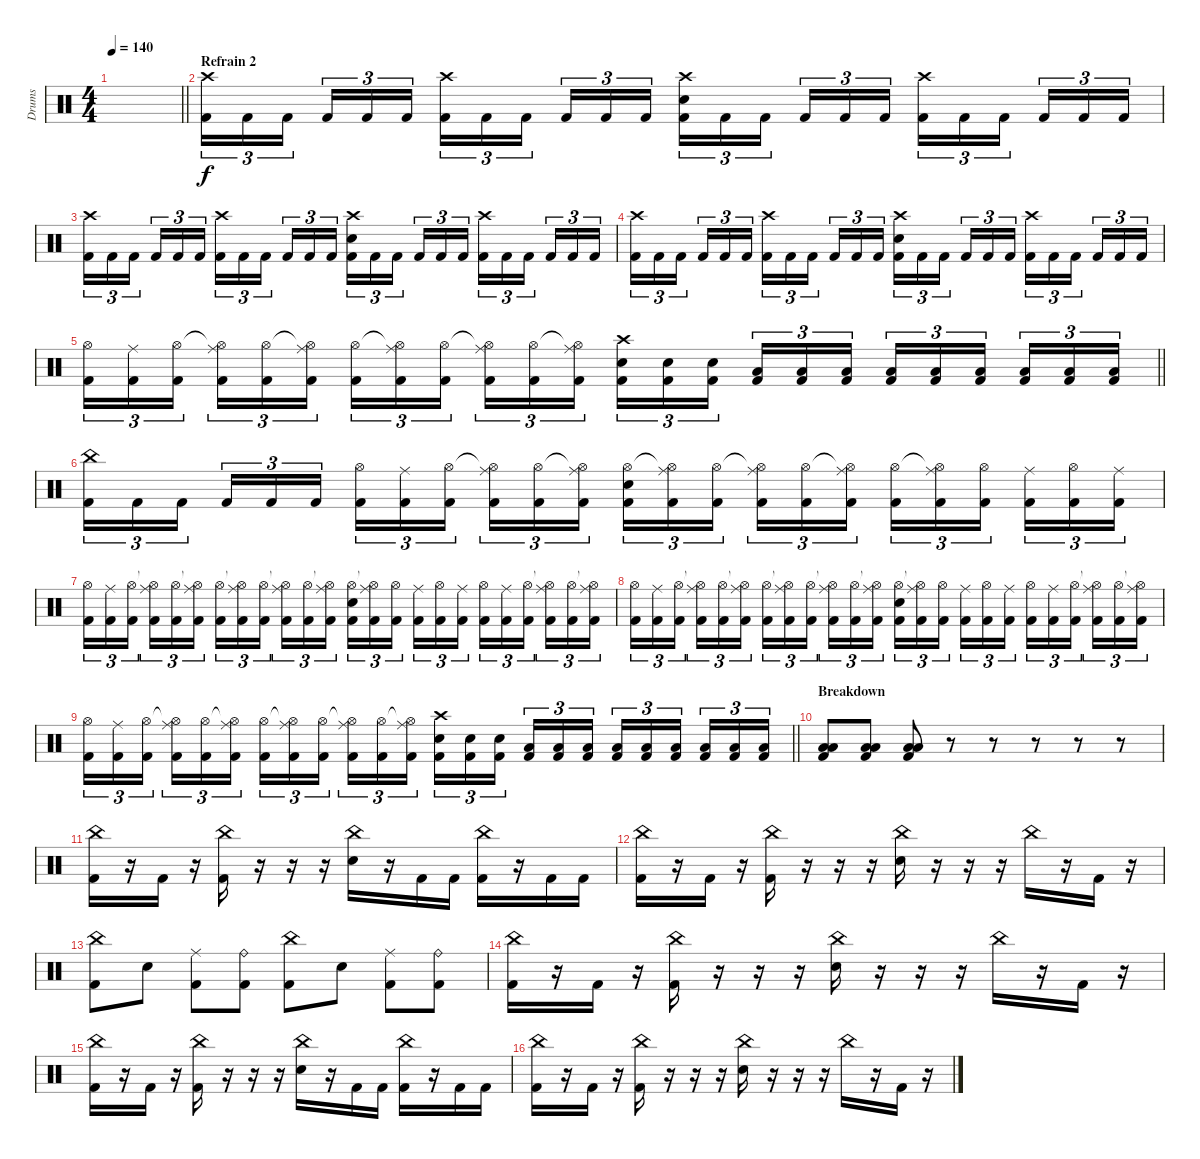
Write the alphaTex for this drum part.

\track ("Drums" "Drums") {instrument percussion}
\staff {score}
\articulation defaults
\ts (4 4)
\tempo 140
\clef neutral
\barLineRight lightlight
\ks c
|
\section ("" "Refrain 2")
("Crash high (hit)" "Kick (hit) 2").16{tu (3 2)} "Kick (hit) 2".16{tu (3 2)} "Kick (hit) 2".16{tu (3 2) beam splitsecondary} "Kick (hit) 2".16{tu (3 2)} "Kick (hit) 2".16{tu (3 2)} "Kick (hit) 2".16{tu (3 2)} ("Crash high (hit)" "Kick (hit) 2").16{tu (3 2)} "Kick (hit) 2".16{tu (3 2)} "Kick (hit) 2".16{tu (3 2) beam splitsecondary} "Kick (hit) 2".16{tu (3 2)} "Kick (hit) 2".16{tu (3 2)} "Kick (hit) 2".16{tu (3 2)} ("Crash high (hit)" "Snare (hit) 2" "Kick (hit) 2").16{tu (3 2)} "Kick (hit) 2".16{tu (3 2)} "Kick (hit) 2".16{tu (3 2) beam splitsecondary} "Kick (hit) 2".16{tu (3 2)} "Kick (hit) 2".16{tu (3 2)} "Kick (hit) 2".16{tu (3 2)} ("Crash high (hit)" "Kick (hit) 2").16{tu (3 2)} "Kick (hit) 2".16{tu (3 2)} "Kick (hit) 2".16{tu (3 2) beam splitsecondary} "Kick (hit) 2".16{tu (3 2)} "Kick (hit) 2".16{tu (3 2)} "Kick (hit) 2".16{tu (3 2)} |
("Crash high (hit)" "Kick (hit) 2").16{tu (3 2)} "Kick (hit) 2".16{tu (3 2)} "Kick (hit) 2".16{tu (3 2) beam splitsecondary} "Kick (hit) 2".16{tu (3 2)} "Kick (hit) 2".16{tu (3 2)} "Kick (hit) 2".16{tu (3 2)} ("Crash high (hit)" "Kick (hit) 2").16{tu (3 2)} "Kick (hit) 2".16{tu (3 2)} "Kick (hit) 2".16{tu (3 2) beam splitsecondary} "Kick (hit) 2".16{tu (3 2)} "Kick (hit) 2".16{tu (3 2)} "Kick (hit) 2".16{tu (3 2)} ("Crash high (hit)" "Snare (hit) 2" "Kick (hit) 2").16{tu (3 2)} "Kick (hit) 2".16{tu (3 2)} "Kick (hit) 2".16{tu (3 2) beam splitsecondary} "Kick (hit) 2".16{tu (3 2)} "Kick (hit) 2".16{tu (3 2)} "Kick (hit) 2".16{tu (3 2)} ("Crash high (hit)" "Kick (hit) 2").16{tu (3 2)} "Kick (hit) 2".16{tu (3 2)} "Kick (hit) 2".16{tu (3 2) beam splitsecondary} "Kick (hit) 2".16{tu (3 2)} "Kick (hit) 2".16{tu (3 2)} "Kick (hit) 2".16{tu (3 2)} |
("Crash high (hit)" "Kick (hit) 2").16{tu (3 2)} "Kick (hit) 2".16{tu (3 2)} "Kick (hit) 2".16{tu (3 2) beam splitsecondary} "Kick (hit) 2".16{tu (3 2)} "Kick (hit) 2".16{tu (3 2)} "Kick (hit) 2".16{tu (3 2)} ("Crash high (hit)" "Kick (hit) 2").16{tu (3 2)} "Kick (hit) 2".16{tu (3 2)} "Kick (hit) 2".16{tu (3 2) beam splitsecondary} "Kick (hit) 2".16{tu (3 2)} "Kick (hit) 2".16{tu (3 2)} "Kick (hit) 2".16{tu (3 2)} ("Crash high (hit)" "Snare (hit) 2" "Kick (hit) 2").16{tu (3 2)} "Kick (hit) 2".16{tu (3 2)} "Kick (hit) 2".16{tu (3 2) beam splitsecondary} "Kick (hit) 2".16{tu (3 2)} "Kick (hit) 2".16{tu (3 2)} "Kick (hit) 2".16{tu (3 2)} ("Crash high (hit)" "Kick (hit) 2").16{tu (3 2)} "Kick (hit) 2".16{tu (3 2)} "Kick (hit) 2".16{tu (3 2) beam splitsecondary} "Kick (hit) 2".16{tu (3 2)} "Kick (hit) 2".16{tu (3 2)} "Kick (hit) 2".16{tu (3 2)} |
\barLineRight lightlight
("Hi-Hat (open)" "Kick (hit) 2").16{tu (3 2)} ("Ride (middle)" "Kick (hit) 2").16{tu (3 2)} ("Hi-Hat (open)" "Kick (hit) 2").16{tu (3 2) beam splitsecondary} ("Hi-Hat (open)"{t} "Ride (middle)" "Kick (hit) 2").16{tu (3 2)} ("Hi-Hat (open)" "Kick (hit) 2").16{tu (3 2)} ("Hi-Hat (open)"{t} "Ride (middle)" "Kick (hit) 2").16{tu (3 2)} ("Hi-Hat (open)" "Kick (hit) 2").16{tu (3 2)} ("Hi-Hat (open)"{t} "Ride (middle)" "Kick (hit) 2").16{tu (3 2)} ("Hi-Hat (open)" "Kick (hit) 2").16{tu (3 2) beam splitsecondary} ("Hi-Hat (open)"{t} "Ride (middle)" "Kick (hit) 2").16{tu (3 2)} ("Hi-Hat (open)" "Kick (hit) 2").16{tu (3 2)} ("Hi-Hat (open)"{t} "Ride (middle)" "Kick (hit) 2").16{tu (3 2)} ("Crash high (hit)" "Snare (hit) 2" "Kick (hit) 2").16{tu (3 2)} ("Snare (hit) 2" "Kick (hit) 2").16{tu (3 2)} ("Snare (hit) 2" "Kick (hit) 2").16{tu (3 2) beam splitsecondary} ("Low Floor Tom (hit)" "Kick (hit) 2").16{tu (3 2)} ("Low Floor Tom (hit)" "Kick (hit) 2").16{tu (3 2)} ("Low Floor Tom (hit)" "Kick (hit) 2").16{tu (3 2)} ("Low Tom (hit)" "Kick (hit) 2").16{tu (3 2)} ("Low Tom (hit)" "Kick (hit) 2").16{tu (3 2)} ("Low Tom (hit)" "Kick (hit) 2").16{tu (3 2) beam splitsecondary} ("Low Floor Tom (hit)" "Kick (hit) 2").16{tu (3 2)} ("Low Floor Tom (hit)" "Kick (hit) 2").16{tu (3 2)} ("Low Floor Tom (hit)" "Kick (hit) 2").16{tu (3 2)} |
("China (hit)" "Kick (hit) 2").16{tu (3 2)} "Kick (hit) 2".16{tu (3 2)} "Kick (hit) 2".16{tu (3 2) beam splitsecondary} "Kick (hit) 2".16{tu (3 2)} "Kick (hit) 2".16{tu (3 2)} "Kick (hit) 2".16{tu (3 2)} ("Hi-Hat (open)" "Kick (hit) 2").16{tu (3 2)} ("Ride (middle)" "Kick (hit) 2").16{tu (3 2)} ("Hi-Hat (open)" "Kick (hit) 2").16{tu (3 2) beam splitsecondary} ("Hi-Hat (open)"{t} "Ride (middle)" "Kick (hit) 2").16{tu (3 2)} ("Hi-Hat (open)" "Kick (hit) 2").16{tu (3 2)} ("Hi-Hat (open)"{t} "Ride (middle)" "Kick (hit) 2").16{tu (3 2)} ("Hi-Hat (open)" "Snare (hit) 2" "Kick (hit) 2").16{tu (3 2)} ("Hi-Hat (open)"{t} "Ride (middle)" "Kick (hit) 2").16{tu (3 2)} ("Hi-Hat (open)" "Kick (hit) 2").16{tu (3 2) beam splitsecondary} ("Hi-Hat (open)"{t} "Ride (middle)" "Kick (hit) 2").16{tu (3 2)} ("Hi-Hat (open)" "Kick (hit) 2").16{tu (3 2)} ("Hi-Hat (open)"{t} "Ride (middle)" "Kick (hit) 2").16{tu (3 2)} ("Hi-Hat (open)" "Kick (hit) 2").16{tu (3 2)} ("Hi-Hat (open)"{t} "Ride (middle)" "Kick (hit) 2").16{tu (3 2)} ("Hi-Hat (open)" "Kick (hit) 2").16{tu (3 2) beam splitsecondary} ("Ride (middle)" "Kick (hit) 2").16{tu (3 2)} ("Hi-Hat (open)" "Kick (hit) 2").16{tu (3 2)} ("Ride (middle)" "Kick (hit) 2").16{tu (3 2)} |
("Hi-Hat (open)" "Kick (hit) 2").16{tu (3 2)} ("Ride (middle)" "Kick (hit) 2").16{tu (3 2)} ("Hi-Hat (open)" "Kick (hit) 2").16{tu (3 2) beam splitsecondary} ("Hi-Hat (open)"{t} "Ride (middle)" "Kick (hit) 2").16{tu (3 2)} ("Hi-Hat (open)" "Kick (hit) 2").16{tu (3 2)} ("Hi-Hat (open)"{t} "Ride (middle)" "Kick (hit) 2").16{tu (3 2)} ("Hi-Hat (open)" "Kick (hit) 2").16{tu (3 2)} ("Hi-Hat (open)"{t} "Ride (middle)" "Kick (hit) 2").16{tu (3 2)} ("Hi-Hat (open)" "Kick (hit) 2").16{tu (3 2) beam splitsecondary} ("Hi-Hat (open)"{t} "Ride (middle)" "Kick (hit) 2").16{tu (3 2)} ("Hi-Hat (open)" "Kick (hit) 2").16{tu (3 2)} ("Hi-Hat (open)"{t} "Ride (middle)" "Kick (hit) 2").16{tu (3 2)} ("Hi-Hat (open)" "Snare (hit) 2" "Kick (hit) 2").16{tu (3 2)} ("Hi-Hat (open)"{t} "Ride (middle)" "Kick (hit) 2").16{tu (3 2)} ("Hi-Hat (open)" "Kick (hit) 2").16{tu (3 2) beam splitsecondary} ("Ride (middle)" "Kick (hit) 2").16{tu (3 2)} ("Hi-Hat (open)" "Kick (hit) 2").16{tu (3 2)} ("Ride (middle)" "Kick (hit) 2").16{tu (3 2)} ("Hi-Hat (open)" "Kick (hit) 2").16{tu (3 2)} ("Ride (middle)" "Kick (hit) 2").16{tu (3 2)} ("Hi-Hat (open)" "Kick (hit) 2").16{tu (3 2) beam splitsecondary} ("Hi-Hat (open)"{t} "Ride (middle)" "Kick (hit) 2").16{tu (3 2)} ("Hi-Hat (open)" "Kick (hit) 2").16{tu (3 2)} ("Hi-Hat (open)"{t} "Ride (middle)" "Kick (hit) 2").16{tu (3 2)} |
("Hi-Hat (open)" "Kick (hit) 2").16{tu (3 2)} ("Ride (middle)" "Kick (hit) 2").16{tu (3 2)} ("Hi-Hat (open)" "Kick (hit) 2").16{tu (3 2) beam splitsecondary} ("Hi-Hat (open)"{t} "Ride (middle)" "Kick (hit) 2").16{tu (3 2)} ("Hi-Hat (open)" "Kick (hit) 2").16{tu (3 2)} ("Hi-Hat (open)"{t} "Ride (middle)" "Kick (hit) 2").16{tu (3 2)} ("Hi-Hat (open)" "Kick (hit) 2").16{tu (3 2)} ("Hi-Hat (open)"{t} "Ride (middle)" "Kick (hit) 2").16{tu (3 2)} ("Hi-Hat (open)" "Kick (hit) 2").16{tu (3 2) beam splitsecondary} ("Hi-Hat (open)"{t} "Ride (middle)" "Kick (hit) 2").16{tu (3 2)} ("Hi-Hat (open)" "Kick (hit) 2").16{tu (3 2)} ("Hi-Hat (open)"{t} "Ride (middle)" "Kick (hit) 2").16{tu (3 2)} ("Hi-Hat (open)" "Snare (hit) 2" "Kick (hit) 2").16{tu (3 2)} ("Hi-Hat (open)"{t} "Ride (middle)" "Kick (hit) 2").16{tu (3 2)} ("Hi-Hat (open)" "Kick (hit) 2").16{tu (3 2) beam splitsecondary} ("Ride (middle)" "Kick (hit) 2").16{tu (3 2)} ("Hi-Hat (open)" "Kick (hit) 2").16{tu (3 2)} ("Ride (middle)" "Kick (hit) 2").16{tu (3 2)} ("Hi-Hat (open)" "Kick (hit) 2").16{tu (3 2)} ("Ride (middle)" "Kick (hit) 2").16{tu (3 2)} ("Hi-Hat (open)" "Kick (hit) 2").16{tu (3 2) beam splitsecondary} ("Hi-Hat (open)"{t} "Ride (middle)" "Kick (hit) 2").16{tu (3 2)} ("Hi-Hat (open)" "Kick (hit) 2").16{tu (3 2)} ("Hi-Hat (open)"{t} "Ride (middle)" "Kick (hit) 2").16{tu (3 2)} |
\barLineRight lightlight
("Hi-Hat (open)" "Kick (hit) 2").16{tu (3 2)} ("Ride (middle)" "Kick (hit) 2").16{tu (3 2)} ("Hi-Hat (open)" "Kick (hit) 2").16{tu (3 2) beam splitsecondary} ("Hi-Hat (open)"{t} "Ride (middle)" "Kick (hit) 2").16{tu (3 2)} ("Hi-Hat (open)" "Kick (hit) 2").16{tu (3 2)} ("Hi-Hat (open)"{t} "Ride (middle)" "Kick (hit) 2").16{tu (3 2)} ("Hi-Hat (open)" "Kick (hit) 2").16{tu (3 2)} ("Hi-Hat (open)"{t} "Ride (middle)" "Kick (hit) 2").16{tu (3 2)} ("Hi-Hat (open)" "Kick (hit) 2").16{tu (3 2) beam splitsecondary} ("Hi-Hat (open)"{t} "Ride (middle)" "Kick (hit) 2").16{tu (3 2)} ("Hi-Hat (open)" "Kick (hit) 2").16{tu (3 2)} ("Hi-Hat (open)"{t} "Ride (middle)" "Kick (hit) 2").16{tu (3 2)} ("Crash high (hit)" "Snare (hit) 2" "Kick (hit) 2").16{tu (3 2)} ("Snare (hit) 2" "Kick (hit) 2").16{tu (3 2)} ("Snare (hit) 2" "Kick (hit) 2").16{tu (3 2) beam splitsecondary} ("Low Floor Tom (hit)" "Kick (hit) 2").16{tu (3 2)} ("Low Floor Tom (hit)" "Kick (hit) 2").16{tu (3 2)} ("Low Floor Tom (hit)" "Kick (hit) 2").16{tu (3 2)} ("Low Tom (hit)" "Kick (hit) 2").16{tu (3 2)} ("Low Tom (hit)" "Kick (hit) 2").16{tu (3 2)} ("Low Tom (hit)" "Kick (hit) 2").16{tu (3 2) beam splitsecondary} ("Low Floor Tom (hit)" "Kick (hit) 2").16{tu (3 2)} ("Low Floor Tom (hit)" "Kick (hit) 2").16{tu (3 2)} ("Low Floor Tom (hit)" "Kick (hit) 2").16{tu (3 2)} |
\section ("" "Breakdown")
("Low Tom (hit)" "Low Floor Tom (hit)" "Kick (hit) 2").8 ("Low Tom (hit)" "Low Floor Tom (hit)" "Kick (hit) 2").8 ("Low Tom (hit)" "Low Floor Tom (hit)" "Kick (hit) 2").8 r.8 r.8 r.8 r.8 r.8 |
("China (hit)" "Kick (hit) 2").16 r.16 "Kick (hit) 2".16 r.16 ("China (hit)" "Kick (hit) 2").16 r.16 r.16 r.16 ("China (hit)" "Snare (hit) 2").16 r.16 "Kick (hit) 2".16 "Kick (hit) 2".16 ("China (hit)" "Kick (hit) 2").16 r.16 "Kick (hit) 2".16 "Kick (hit) 2".16 |
("China (hit)" "Kick (hit) 2").16 r.16 "Kick (hit) 2".16 r.16 ("China (hit)" "Kick (hit) 2").16 r.16 r.16 r.16 ("China (hit)" "Snare (hit) 2").16 r.16 r.16 r.16 "China (hit)".16 r.16 "Kick (hit) 2".16 r.16 |
("China (hit)" "Kick (hit) 2").8 "Snare (hit) 2".8 ("Ride (middle)" "Kick (hit) 2").8 ("Ride (bell)" "Kick (hit) 2").8 ("China (hit)" "Kick (hit) 2").8 "Snare (hit) 2".8 ("Ride (middle)" "Kick (hit) 2").8 ("Ride (bell)" "Kick (hit) 2").8 |
("China (hit)" "Kick (hit) 2").16 r.16 "Kick (hit) 2".16 r.16 ("China (hit)" "Kick (hit) 2").16 r.16 r.16 r.16 ("China (hit)" "Snare (hit) 2").16 r.16 r.16 r.16 "China (hit)".16 r.16 "Kick (hit) 2".16 r.16 |
("China (hit)" "Kick (hit) 2").16 r.16 "Kick (hit) 2".16 r.16 ("China (hit)" "Kick (hit) 2").16 r.16 r.16 r.16 ("China (hit)" "Snare (hit) 2").16 r.16 "Kick (hit) 2".16 "Kick (hit) 2".16 ("China (hit)" "Kick (hit) 2").16 r.16 "Kick (hit) 2".16 "Kick (hit) 2".16 |
("China (hit)" "Kick (hit) 2").16 r.16 "Kick (hit) 2".16 r.16 ("China (hit)" "Kick (hit) 2").16 r.16 r.16 r.16 ("China (hit)" "Snare (hit) 2").16 r.16 r.16 r.16 "China (hit)".16 r.16 "Kick (hit) 2".16 r.16
